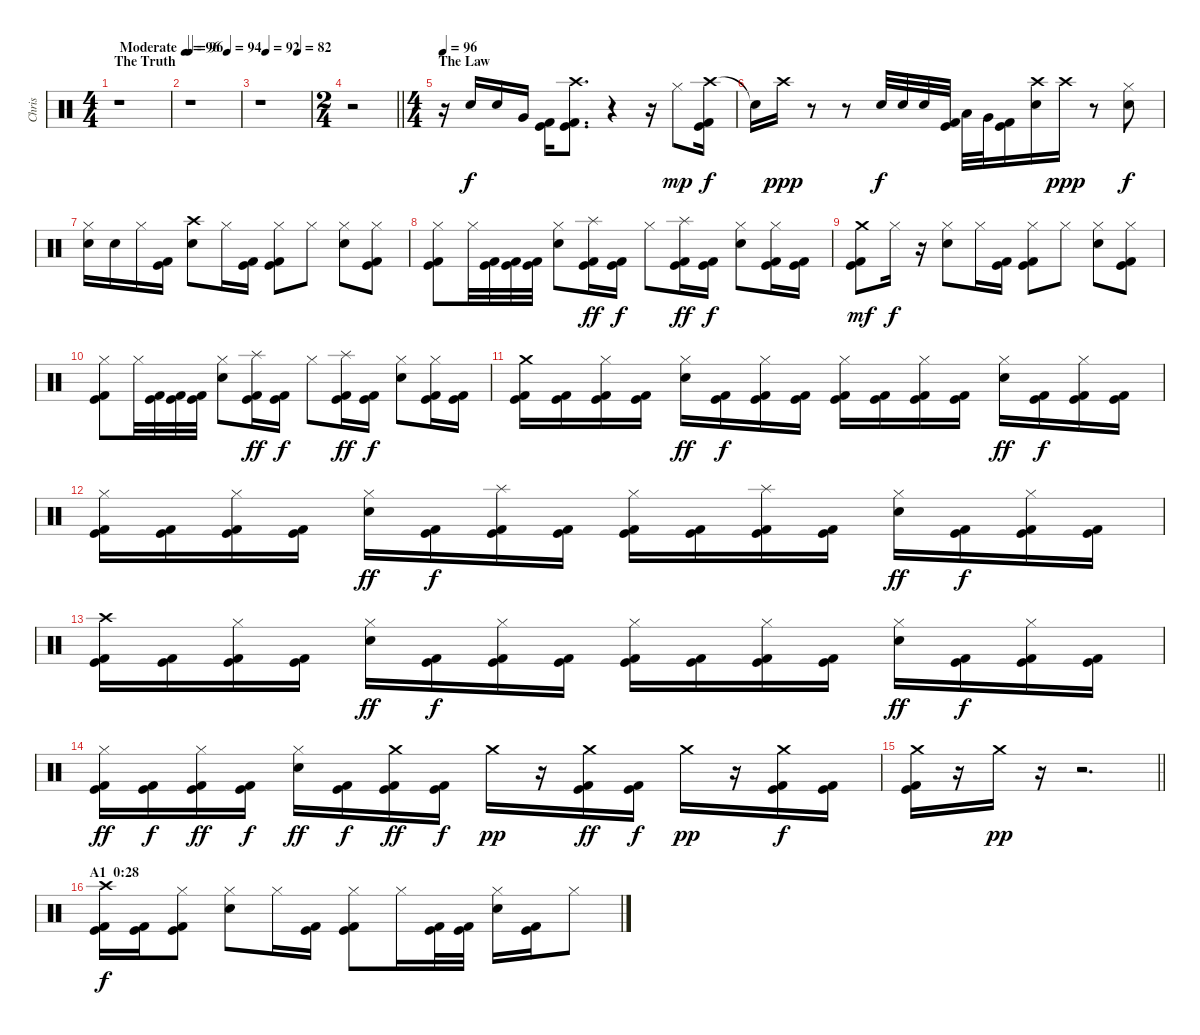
\track ("Chris" "Chris") {instrument percussion}
\staff {score}
\articulation defaults
\ts (4 4)
\section ("" "The Truth")
\tempo (96 "Moderate")
\tempo 100
\tempo (96 "Moderate")
\clef neutral
\ks c
r.1{dy f} |
\tempo 96
\tempo (94 0.75)
r.1 |
\tempo (92 0.125)
\tempo (82 0.75)
r.1 |
\ts (2 4)
\barLineRight lightlight
r.2 |
\ts (4 4)
\section ("" "The Law")
\tempo 96
r.16 "Electric Snare (hit)".16{volume 16} "Electric Snare (hit)".16 "Very Low Tom (hit)".16 ("Kick (hit)" "Kick (hit) 2").16 ("Crash high (hit)" "Kick (hit)" "Kick (hit) 2").8{d} r.4 r.16 "Hi-Hat (closed)".8{dy mp} ("Crash high (hit)" "Kick (hit)" "Kick (hit) 2").16{dy f} |
"Snare (hit)"{t}.16 "Crash high (hit)".16{dy ppp} r.8 r.8 "Electric Snare (hit)".32{dy f} "Electric Snare (hit)".32 "Electric Snare (hit)".32 ("Kick (hit)" "Kick (hit) 2").32 "Low Tom (hit)".32 "Very Low Tom (hit)".32 ("Kick (hit)" "Kick (hit) 2").16 ("Crash high (hit)" "Electric Snare (hit)").16 "Crash high (hit)".16{dy ppp} r.8 ("Hi-Hat (closed)" "Electric Snare (hit)").8{dy f} |
("Hi-Hat (closed)" "Electric Snare (hit)").16 "Electric Snare (hit)".16 "Hi-Hat (closed)".16 ("Kick (hit)" "Kick (hit) 2").16 ("Crash high (hit)" "Electric Snare (hit)").8 "Hi-Hat (closed)".16 ("Kick (hit)" "Kick (hit) 2").16 ("Hi-Hat (closed)" "Kick (hit)" "Kick (hit) 2").8 "Hi-Hat (closed)".8 ("Hi-Hat (closed)" "Electric Snare (hit)").8 ("Hi-Hat (closed)" "Kick (hit)" "Kick (hit) 2").8 |
("Hi-Hat (closed)" "Kick (hit)" "Kick (hit) 2").8 "Hi-Hat (closed)".32 ("Kick (hit)" "Kick (hit) 2").32 ("Kick (hit)" "Kick (hit) 2").32 ("Kick (hit)" "Kick (hit) 2").32 ("Hi-Hat (closed)" "Electric Snare (hit)").8 ("Splash (hit)" "Kick (hit)" "Kick (hit) 2").16{dy ff} ("Kick (hit)" "Kick (hit) 2").16{dy f} "Hi-Hat (closed)".8 ("Splash (hit)" "Kick (hit)" "Kick (hit) 2").16{dy ff} ("Kick (hit)" "Kick (hit) 2").16{dy f} ("Hi-Hat (closed)" "Electric Snare (hit)").8 ("Hi-Hat (closed)" "Kick (hit)" "Kick (hit) 2").16 ("Kick (hit)" "Kick (hit) 2").16 |
("Crash medium (hit)" "Kick (hit)" "Kick (hit) 2").8{dy mf} "Hi-Hat (closed)".16{dy f} r.16 ("Hi-Hat (closed)" "Electric Snare (hit)").8 "Hi-Hat (closed)".16 ("Kick (hit)" "Kick (hit) 2").16 ("Hi-Hat (closed)" "Kick (hit)" "Kick (hit) 2").8 "Hi-Hat (closed)".8 ("Hi-Hat (closed)" "Electric Snare (hit)").8 ("Hi-Hat (closed)" "Kick (hit)" "Kick (hit) 2").8 |
("Hi-Hat (closed)" "Kick (hit)" "Kick (hit) 2").8 "Hi-Hat (closed)".32 ("Kick (hit)" "Kick (hit) 2").32 ("Kick (hit)" "Kick (hit) 2").32 ("Kick (hit)" "Kick (hit) 2").32 ("Hi-Hat (closed)" "Electric Snare (hit)").8 ("Splash (hit)" "Kick (hit)" "Kick (hit) 2").16{dy ff} ("Kick (hit)" "Kick (hit) 2").16{dy f} "Hi-Hat (closed)".8 ("Splash (hit)" "Kick (hit)" "Kick (hit) 2").16{dy ff} ("Kick (hit)" "Kick (hit) 2").16{dy f} ("Hi-Hat (closed)" "Electric Snare (hit)").8 ("Hi-Hat (closed)" "Kick (hit)" "Kick (hit) 2").16 ("Kick (hit)" "Kick (hit) 2").16 |
("Crash medium (hit)" "Kick (hit)" "Kick (hit) 2").16 ("Kick (hit)" "Kick (hit) 2").16 ("Hi-Hat (closed)" "Kick (hit)" "Kick (hit) 2").16 ("Kick (hit)" "Kick (hit) 2").16 ("Hi-Hat (closed)" "Electric Snare (hit)").16{dy ff} ("Kick (hit)" "Kick (hit) 2").16{dy f} ("Hi-Hat (closed)" "Kick (hit)" "Kick (hit) 2").16 ("Kick (hit)" "Kick (hit) 2").16 ("Hi-Hat (closed)" "Kick (hit)" "Kick (hit) 2").16 ("Kick (hit)" "Kick (hit) 2").16 ("Hi-Hat (closed)" "Kick (hit)" "Kick (hit) 2").16 ("Kick (hit)" "Kick (hit) 2").16 ("Hi-Hat (closed)" "Electric Snare (hit)").16{dy ff} ("Kick (hit)" "Kick (hit) 2").16{dy f} ("Hi-Hat (closed)" "Kick (hit)" "Kick (hit) 2").16 ("Kick (hit)" "Kick (hit) 2").16 |
("Hi-Hat (closed)" "Kick (hit)" "Kick (hit) 2").16 ("Kick (hit)" "Kick (hit) 2").16 ("Hi-Hat (closed)" "Kick (hit)" "Kick (hit) 2").16 ("Kick (hit)" "Kick (hit) 2").16 ("Hi-Hat (closed)" "Electric Snare (hit)").16{dy ff} ("Kick (hit)" "Kick (hit) 2").16{dy f} ("Splash (hit)" "Kick (hit)" "Kick (hit) 2").16 ("Kick (hit)" "Kick (hit) 2").16 ("Hi-Hat (closed)" "Kick (hit)" "Kick (hit) 2").16 ("Kick (hit)" "Kick (hit) 2").16 ("Splash (hit)" "Kick (hit)" "Kick (hit) 2").16 ("Kick (hit)" "Kick (hit) 2").16 ("Hi-Hat (closed)" "Electric Snare (hit)").16{dy ff} ("Kick (hit)" "Kick (hit) 2").16{dy f} ("Hi-Hat (closed)" "Kick (hit)" "Kick (hit) 2").16 ("Kick (hit)" "Kick (hit) 2").16 |
("Crash high (hit)" "Kick (hit)" "Kick (hit) 2").16 ("Kick (hit)" "Kick (hit) 2").16 ("Hi-Hat (closed)" "Kick (hit)" "Kick (hit) 2").16 ("Kick (hit)" "Kick (hit) 2").16 ("Hi-Hat (closed)" "Electric Snare (hit)").16{dy ff} ("Kick (hit)" "Kick (hit) 2").16{dy f} ("Hi-Hat (closed)" "Kick (hit)" "Kick (hit) 2").16 ("Kick (hit)" "Kick (hit) 2").16 ("Hi-Hat (closed)" "Kick (hit)" "Kick (hit) 2").16 ("Kick (hit)" "Kick (hit) 2").16 ("Hi-Hat (closed)" "Kick (hit)" "Kick (hit) 2").16 ("Kick (hit)" "Kick (hit) 2").16 ("Hi-Hat (closed)" "Electric Snare (hit)").16{dy ff} ("Kick (hit)" "Kick (hit) 2").16{dy f} ("Hi-Hat (closed)" "Kick (hit)" "Kick (hit) 2").16 ("Kick (hit)" "Kick (hit) 2").16 |
("Hi-Hat (closed)" "Kick (hit)" "Kick (hit) 2").16{dy ff} ("Kick (hit)" "Kick (hit) 2").16{dy f} ("Hi-Hat (closed)" "Kick (hit)" "Kick (hit) 2").16{dy ff} ("Kick (hit)" "Kick (hit) 2").16{dy f} ("Hi-Hat (closed)" "Electric Snare (hit)").16{dy ff} ("Kick (hit)" "Kick (hit) 2").16{dy f} ("Crash medium (hit)" "Kick (hit)" "Kick (hit) 2").16{dy ff} ("Kick (hit)" "Kick (hit) 2").16{dy f} "Crash medium (hit)".16{dy pp} r.16 ("Crash medium (hit)" "Kick (hit)" "Kick (hit) 2").16{dy ff} ("Kick (hit)" "Kick (hit) 2").16{dy f} "Crash medium (hit)".16{dy pp} r.16 ("Crash medium (hit)" "Kick (hit)" "Kick (hit) 2").16{dy f} ("Kick (hit)" "Kick (hit) 2").16 |
\barLineRight lightlight
("Crash medium (hit)" "Kick (hit)" "Kick (hit) 2").16 r.16 "Crash medium (hit)".16{dy pp} r.16 r.2{d} |
\section ("" "A1  0:28")
("Crash high (hit)" "Kick (hit)" "Kick (hit) 2").16{dy f} ("Kick (hit)" "Kick (hit) 2").16 ("Hi-Hat (closed)" "Kick (hit)" "Kick (hit) 2").8 ("Hi-Hat (closed)" "Electric Snare (hit)").8 "Hi-Hat (closed)".16 ("Kick (hit)" "Kick (hit) 2").16 ("Hi-Hat (closed)" "Kick (hit)" "Kick (hit) 2").8 "Hi-Hat (closed)".16 ("Kick (hit)" "Kick (hit) 2").32 ("Kick (hit)" "Kick (hit) 2").32 ("Hi-Hat (closed)" "Electric Snare (hit)").16 ("Kick (hit)" "Kick (hit) 2").16 "Hi-Hat (closed)".8
